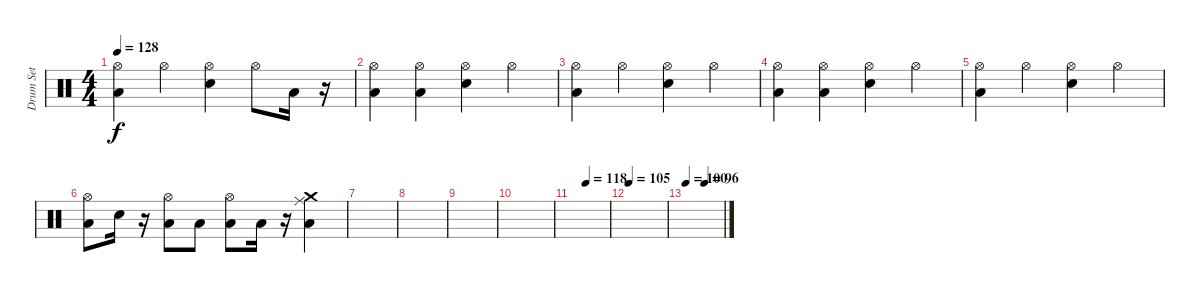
\track ("Drum Set" "Drum Set") {instrument percussion}
\staff {score}
\articulation defaults
\ts (4 4)
\tempo 128
\clef neutral
\ks c
("Hi-Hat (open)" "Low Floor Tom (hit)").4{dy f} "Hi-Hat (open)".4 ("Hi-Hat (open)" "Snare (hit) 2").4 "Hi-Hat (open)".8 "Low Floor Tom (hit)".16 r.16 |
("Hi-Hat (open)" "Low Floor Tom (hit)").4 ("Hi-Hat (open)" "Low Floor Tom (hit)").4 ("Hi-Hat (open)" "Snare (hit) 2").4 "Hi-Hat (open)".4 |
("Hi-Hat (open)" "Low Floor Tom (hit)").4 "Hi-Hat (open)".4 ("Hi-Hat (open)" "Snare (hit) 2").4 "Hi-Hat (open)".4 |
("Hi-Hat (open)" "Low Floor Tom (hit)").4 ("Hi-Hat (open)" "Low Floor Tom (hit)").4 ("Hi-Hat (open)" "Snare (hit) 2").4 "Hi-Hat (open)".4 |
("Hi-Hat (open)" "Low Floor Tom (hit)").4 "Hi-Hat (open)".4 ("Hi-Hat (open)" "Snare (hit) 2").4 "Hi-Hat (open)".4 |
("Hi-Hat (open)" "Low Floor Tom (hit)").8 "Snare (hit) 2".16 r.16 ("Hi-Hat (open)" "Low Tom (hit)").8 "Low Tom (hit)".8 ("Hi-Hat (open)" "Low Tom (hit)").8 "Low Tom (hit)".16 r.16 ("Crash medium (hit)" "Ride (middle)" "Low Floor Tom (hit)").4 |
|
|
|
|
\tempo (118 0.375)
|
\tempo 105
|
\tempo 100
\tempo (96 0.5)
